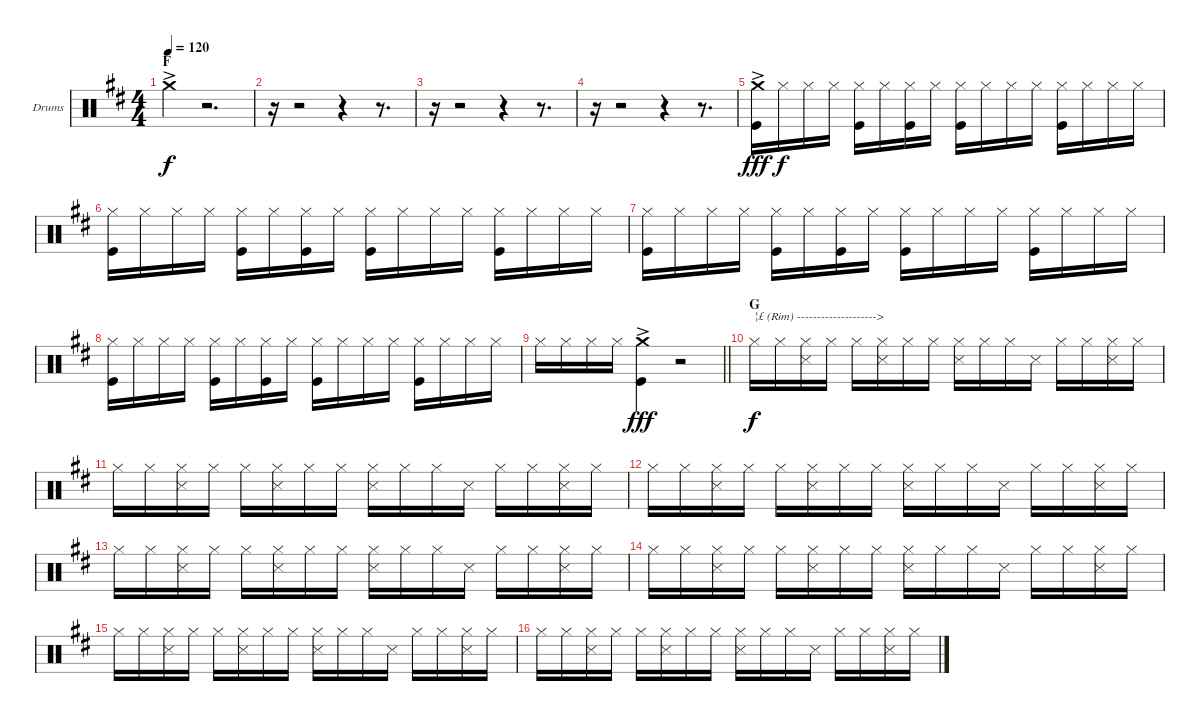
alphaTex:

\bracketExtendMode groupsimilarinstruments
\firstSystemTrackNameOrientation horizontal
\otherSystemsTrackNameOrientation horizontal
\track ("Drumkit" "Drums") {instrument percussion}
\staff {score}
\articulation defaults
\ts (4 4)
\section ("" "F")
\tempo 120
\clef neutral
\ks d "Crash medium (hit)"{ac}.4{dy f}
r.2{d} |
r.16 r.2 r.4 r.8{d} |
r.16 r.2 r.4 r.8{d} |
r.16 r.2 r.4 r.8{d} |
("Crash medium (hit)"{ac} "Kick (hit)").16{dy fff} "Hi-Hat (closed)".16{dy f} "Hi-Hat (closed)".16 "Hi-Hat (closed)".16 ("Hi-Hat (closed)" "Kick (hit)").16 "Hi-Hat (closed)".16 ("Hi-Hat (closed)" "Kick (hit)").16 "Hi-Hat (closed)".16 ("Hi-Hat (closed)" "Kick (hit)").16 "Hi-Hat (closed)".16 "Hi-Hat (closed)".16 "Hi-Hat (closed)".16 ("Hi-Hat (closed)" "Kick (hit)").16 "Hi-Hat (closed)".16 "Hi-Hat (closed)".16 "Hi-Hat (closed)".16 |
("Hi-Hat (closed)" "Kick (hit)").16 "Hi-Hat (closed)".16 "Hi-Hat (closed)".16 "Hi-Hat (closed)".16 ("Hi-Hat (closed)" "Kick (hit)").16 "Hi-Hat (closed)".16 ("Hi-Hat (closed)" "Kick (hit)").16 "Hi-Hat (closed)".16 ("Hi-Hat (closed)" "Kick (hit)").16 "Hi-Hat (closed)".16 "Hi-Hat (closed)".16 "Hi-Hat (closed)".16 ("Hi-Hat (closed)" "Kick (hit)").16 "Hi-Hat (closed)".16 "Hi-Hat (closed)".16 "Hi-Hat (closed)".16 |
("Hi-Hat (closed)" "Kick (hit)").16 "Hi-Hat (closed)".16 "Hi-Hat (closed)".16 "Hi-Hat (closed)".16 ("Hi-Hat (closed)" "Kick (hit)").16 "Hi-Hat (closed)".16 ("Hi-Hat (closed)" "Kick (hit)").16 "Hi-Hat (closed)".16 ("Hi-Hat (closed)" "Kick (hit)").16 "Hi-Hat (closed)".16 "Hi-Hat (closed)".16 "Hi-Hat (closed)".16 ("Hi-Hat (closed)" "Kick (hit)").16 "Hi-Hat (closed)".16 "Hi-Hat (closed)".16 "Hi-Hat (closed)".16 |
("Hi-Hat (closed)" "Kick (hit)").16 "Hi-Hat (closed)".16 "Hi-Hat (closed)".16 "Hi-Hat (closed)".16 ("Hi-Hat (closed)" "Kick (hit)").16 "Hi-Hat (closed)".16 ("Hi-Hat (closed)" "Kick (hit)").16 "Hi-Hat (closed)".16 ("Hi-Hat (closed)" "Kick (hit)").16 "Hi-Hat (closed)".16 "Hi-Hat (closed)".16 "Hi-Hat (closed)".16 ("Hi-Hat (closed)" "Kick (hit)").16 "Hi-Hat (closed)".16 "Hi-Hat (closed)".16 "Hi-Hat (closed)".16 |
\barLineRight lightlight "Hi-Hat (closed)".16 "Hi-Hat (closed)".16 "Hi-Hat (closed)".16 "Hi-Hat (closed)".16
("Crash medium (hit)"{ac} "Kick (hit)").4{dy fff} r.2 |
\section ("" "G")
"Hi-Hat (closed)".16{txt "¦£ (Rim) -------------------->" dy f} "Hi-Hat (closed)".16 ("Hi-Hat (closed)" "Snare (side stick) 3").16 "Hi-Hat (closed)".16 "Hi-Hat (closed)".16 ("Hi-Hat (closed)" "Snare (side stick) 3").16 "Hi-Hat (closed)".16 "Hi-Hat (closed)".16 ("Hi-Hat (closed)" "Snare (side stick) 3").16 "Hi-Hat (closed)".16 "Hi-Hat (closed)".16 "Snare (side stick) 3".16 "Hi-Hat (closed)".16 "Hi-Hat (closed)".16 ("Hi-Hat (closed)" "Snare (side stick) 3").16 "Hi-Hat (closed)".16 |
"Hi-Hat (closed)".16 "Hi-Hat (closed)".16 ("Hi-Hat (closed)" "Snare (side stick) 3").16 "Hi-Hat (closed)".16 "Hi-Hat (closed)".16 ("Hi-Hat (closed)" "Snare (side stick) 3").16 "Hi-Hat (closed)".16 "Hi-Hat (closed)".16 ("Hi-Hat (closed)" "Snare (side stick) 3").16 "Hi-Hat (closed)".16 "Hi-Hat (closed)".16 "Snare (side stick) 3".16 "Hi-Hat (closed)".16 "Hi-Hat (closed)".16 ("Hi-Hat (closed)" "Snare (side stick) 3").16 "Hi-Hat (closed)".16 |
"Hi-Hat (closed)".16 "Hi-Hat (closed)".16 ("Hi-Hat (closed)" "Snare (side stick) 3").16 "Hi-Hat (closed)".16 "Hi-Hat (closed)".16 ("Hi-Hat (closed)" "Snare (side stick) 3").16 "Hi-Hat (closed)".16 "Hi-Hat (closed)".16 ("Hi-Hat (closed)" "Snare (side stick) 3").16 "Hi-Hat (closed)".16 "Hi-Hat (closed)".16 "Snare (side stick) 3".16 "Hi-Hat (closed)".16 "Hi-Hat (closed)".16 ("Hi-Hat (closed)" "Snare (side stick) 3").16 "Hi-Hat (closed)".16 |
"Hi-Hat (closed)".16 "Hi-Hat (closed)".16 ("Hi-Hat (closed)" "Snare (side stick) 3").16 "Hi-Hat (closed)".16 "Hi-Hat (closed)".16 ("Hi-Hat (closed)" "Snare (side stick) 3").16 "Hi-Hat (closed)".16 "Hi-Hat (closed)".16 ("Hi-Hat (closed)" "Snare (side stick) 3").16 "Hi-Hat (closed)".16 "Hi-Hat (closed)".16 "Snare (side stick) 3".16 "Hi-Hat (closed)".16 "Hi-Hat (closed)".16 ("Hi-Hat (closed)" "Snare (side stick) 3").16 "Hi-Hat (closed)".16 |
"Hi-Hat (closed)".16 "Hi-Hat (closed)".16 ("Hi-Hat (closed)" "Snare (side stick) 3").16 "Hi-Hat (closed)".16 "Hi-Hat (closed)".16 ("Hi-Hat (closed)" "Snare (side stick) 3").16 "Hi-Hat (closed)".16 "Hi-Hat (closed)".16 ("Hi-Hat (closed)" "Snare (side stick) 3").16 "Hi-Hat (closed)".16 "Hi-Hat (closed)".16 "Snare (side stick) 3".16 "Hi-Hat (closed)".16 "Hi-Hat (closed)".16 ("Hi-Hat (closed)" "Snare (side stick) 3").16 "Hi-Hat (closed)".16 |
"Hi-Hat (closed)".16 "Hi-Hat (closed)".16 ("Hi-Hat (closed)" "Snare (side stick) 3").16 "Hi-Hat (closed)".16 "Hi-Hat (closed)".16 ("Hi-Hat (closed)" "Snare (side stick) 3").16 "Hi-Hat (closed)".16 "Hi-Hat (closed)".16 ("Hi-Hat (closed)" "Snare (side stick) 3").16 "Hi-Hat (closed)".16 "Hi-Hat (closed)".16 "Snare (side stick) 3".16 "Hi-Hat (closed)".16 "Hi-Hat (closed)".16 ("Hi-Hat (closed)" "Snare (side stick) 3").16 "Hi-Hat (closed)".16 |
"Hi-Hat (closed)".16 "Hi-Hat (closed)".16 ("Hi-Hat (closed)" "Snare (side stick) 3").16 "Hi-Hat (closed)".16 "Hi-Hat (closed)".16 ("Hi-Hat (closed)" "Snare (side stick) 3").16 "Hi-Hat (closed)".16 "Hi-Hat (closed)".16 ("Hi-Hat (closed)" "Snare (side stick) 3").16 "Hi-Hat (closed)".16 "Hi-Hat (closed)".16 "Snare (side stick) 3".16 "Hi-Hat (closed)".16 "Hi-Hat (closed)".16 ("Hi-Hat (closed)" "Snare (side stick) 3").16 "Hi-Hat (closed)".16
